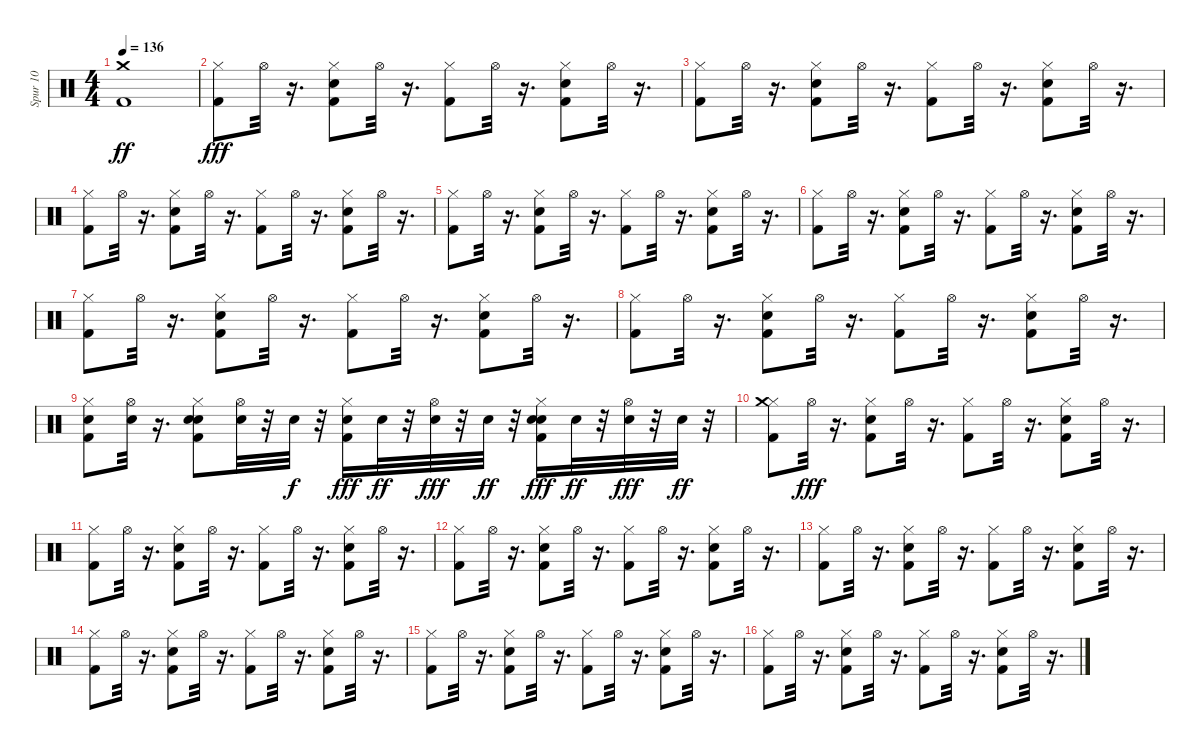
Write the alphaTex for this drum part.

\track ("Spur 10" "Spur 10") {instrument percussion}
\staff {score}
\articulation defaults
\ts (4 4)
\tempo 136
\clef neutral
\ks c
("Kick (hit) 2" "Crash medium (hit)").1{dy ff} |
("Hi-Hat (closed)" "Kick (hit) 2").8{dy fff} "Hi-Hat (open)".32 r.16{d} ("Snare (hit) 2" "Hi-Hat (closed)" "Kick (hit) 2").8 "Hi-Hat (open)".32 r.16{d} ("Hi-Hat (closed)" "Kick (hit) 2").8 "Hi-Hat (open)".32 r.16{d} ("Hi-Hat (closed)" "Kick (hit) 2" "Snare (hit) 2").8 "Hi-Hat (open)".32 r.16{d} |
("Hi-Hat (closed)" "Kick (hit) 2").8 "Hi-Hat (open)".32 r.16{d} ("Hi-Hat (closed)" "Kick (hit) 2" "Snare (hit) 2").8 "Hi-Hat (open)".32 r.16{d} ("Hi-Hat (closed)" "Kick (hit) 2").8 "Hi-Hat (open)".32 r.16{d} ("Hi-Hat (closed)" "Kick (hit) 2" "Snare (hit) 2").8 "Hi-Hat (open)".32 r.16{d} |
("Hi-Hat (closed)" "Kick (hit) 2").8 "Hi-Hat (open)".32 r.16{d} ("Hi-Hat (closed)" "Kick (hit) 2" "Snare (hit) 2").8 "Hi-Hat (open)".32 r.16{d} ("Hi-Hat (closed)" "Kick (hit) 2").8 "Hi-Hat (open)".32 r.16{d} ("Hi-Hat (closed)" "Kick (hit) 2" "Snare (hit) 2").8 "Hi-Hat (open)".32 r.16{d} |
("Hi-Hat (closed)" "Kick (hit) 2").8 "Hi-Hat (open)".32 r.16{d} ("Hi-Hat (closed)" "Kick (hit) 2" "Snare (hit) 2").8 "Hi-Hat (open)".32 r.16{d} ("Hi-Hat (closed)" "Kick (hit) 2").8 "Hi-Hat (open)".32 r.16{d} ("Snare (hit) 2" "Hi-Hat (closed)" "Kick (hit) 2").8 "Hi-Hat (open)".32 r.16{d} |
("Hi-Hat (closed)" "Kick (hit) 2").8 "Hi-Hat (open)".32 r.16{d} ("Snare (hit) 2" "Hi-Hat (closed)" "Kick (hit) 2").8 "Hi-Hat (open)".32 r.16{d} ("Hi-Hat (closed)" "Kick (hit) 2").8 "Hi-Hat (open)".32 r.16{d} ("Snare (hit) 2" "Hi-Hat (closed)" "Kick (hit) 2").8 "Hi-Hat (open)".32 r.16{d} |
("Hi-Hat (closed)" "Kick (hit) 2").8 "Hi-Hat (open)".32 r.16{d} ("Hi-Hat (closed)" "Kick (hit) 2" "Snare (hit) 2").8 "Hi-Hat (open)".32 r.16{d} ("Hi-Hat (closed)" "Kick (hit) 2").8 "Hi-Hat (open)".32 r.16{d} ("Hi-Hat (closed)" "Kick (hit) 2" "Snare (hit) 2").8 "Hi-Hat (open)".32 r.16{d} |
("Hi-Hat (closed)" "Kick (hit) 2").8 "Hi-Hat (open)".32 r.16{d} ("Snare (hit) 2" "Hi-Hat (closed)" "Kick (hit) 2").8 "Hi-Hat (open)".32 r.16{d} ("Hi-Hat (closed)" "Kick (hit) 2").8 "Hi-Hat (open)".32 r.16{d} ("Snare (hit) 2" "Hi-Hat (closed)" "Kick (hit) 2").8 "Hi-Hat (open)".32 r.16{d} |
("Snare (hit) 2" "Hi-Hat (closed)" "Kick (hit) 2").8 ("Snare (hit) 2" "Hi-Hat (open)").32 r.16{d} ("Snare (hit) 2" "Hi-Hat (closed)" "Snare (hit) 2" "Kick (hit) 2").8 ("Snare (hit) 2" "Hi-Hat (open)").32 r.32 "Snare (hit) 2".32{dy f} r.32 ("Snare (hit) 2" "Kick (hit) 2" "Hi-Hat (closed)").16{dy fff} "Snare (hit) 2".32{dy ff} r.32 ("Snare (hit) 2" "Hi-Hat (open)").32{dy fff} r.32 "Snare (hit) 2".32{dy ff} r.32 ("Snare (hit) 2" "Snare (hit) 2" "Kick (hit) 2" "Hi-Hat (closed)").16{dy fff} "Snare (hit) 2".32{dy ff} r.32 ("Snare (hit) 2" "Hi-Hat (open)").32{dy fff} r.32 "Snare (hit) 2".32{dy ff} r.32 |
("Kick (hit) 2" "Hi-Hat (closed)" "Crash medium (hit)").8 "Hi-Hat (open)".32{dy fff} r.16{d} ("Kick (hit) 2" "Hi-Hat (closed)" "Snare (hit) 2").8 "Hi-Hat (open)".32 r.16{d} ("Hi-Hat (closed)" "Kick (hit) 2").8 "Hi-Hat (open)".32 r.16{d} ("Hi-Hat (closed)" "Snare (hit) 2" "Kick (hit) 2").8 "Hi-Hat (open)".32 r.16{d} |
("Hi-Hat (closed)" "Kick (hit) 2").8 "Hi-Hat (open)".32 r.16{d} ("Kick (hit) 2" "Hi-Hat (closed)" "Snare (hit) 2").8 "Hi-Hat (open)".32 r.16{d} ("Hi-Hat (closed)" "Kick (hit) 2").8 "Hi-Hat (open)".32 r.16{d} ("Hi-Hat (closed)" "Kick (hit) 2" "Snare (hit) 2").8 "Hi-Hat (open)".32 r.16{d} |
("Hi-Hat (closed)" "Kick (hit) 2").8 "Hi-Hat (open)".32 r.16{d} ("Hi-Hat (closed)" "Kick (hit) 2" "Snare (hit) 2").8 "Hi-Hat (open)".32 r.16{d} ("Hi-Hat (closed)" "Kick (hit) 2").8 "Hi-Hat (open)".32 r.16{d} ("Snare (hit) 2" "Kick (hit) 2" "Hi-Hat (closed)").8 "Hi-Hat (open)".32 r.16{d} |
("Hi-Hat (closed)" "Kick (hit) 2").8 "Hi-Hat (open)".32 r.16{d} ("Snare (hit) 2" "Kick (hit) 2" "Hi-Hat (closed)").8 "Hi-Hat (open)".32 r.16{d} ("Kick (hit) 2" "Hi-Hat (closed)").8 "Hi-Hat (open)".32 r.16{d} ("Snare (hit) 2" "Hi-Hat (closed)" "Kick (hit) 2").8 "Hi-Hat (open)".32 r.16{d} |
("Hi-Hat (closed)" "Kick (hit) 2").8 "Hi-Hat (open)".32 r.16{d} ("Hi-Hat (closed)" "Kick (hit) 2" "Snare (hit) 2").8 "Hi-Hat (open)".32 r.16{d} ("Hi-Hat (closed)" "Kick (hit) 2").8 "Hi-Hat (open)".32 r.16{d} ("Hi-Hat (closed)" "Snare (hit) 2" "Kick (hit) 2").8 "Hi-Hat (open)".32 r.16{d} |
("Kick (hit) 2" "Hi-Hat (closed)").8 "Hi-Hat (open)".32 r.16{d} ("Hi-Hat (closed)" "Snare (hit) 2" "Kick (hit) 2").8 "Hi-Hat (open)".32 r.16{d} ("Kick (hit) 2" "Hi-Hat (closed)").8 "Hi-Hat (open)".32 r.16{d} ("Kick (hit) 2" "Hi-Hat (closed)" "Snare (hit) 2").8 "Hi-Hat (open)".32 r.16{d} |
("Hi-Hat (closed)" "Kick (hit) 2").8 "Hi-Hat (open)".32 r.16{d} ("Hi-Hat (closed)" "Kick (hit) 2" "Snare (hit) 2").8 "Hi-Hat (open)".32 r.16{d} ("Hi-Hat (closed)" "Kick (hit) 2").8 "Hi-Hat (open)".32 r.16{d} ("Hi-Hat (closed)" "Kick (hit) 2" "Snare (hit) 2").8 "Hi-Hat (open)".32 r.16{d}
